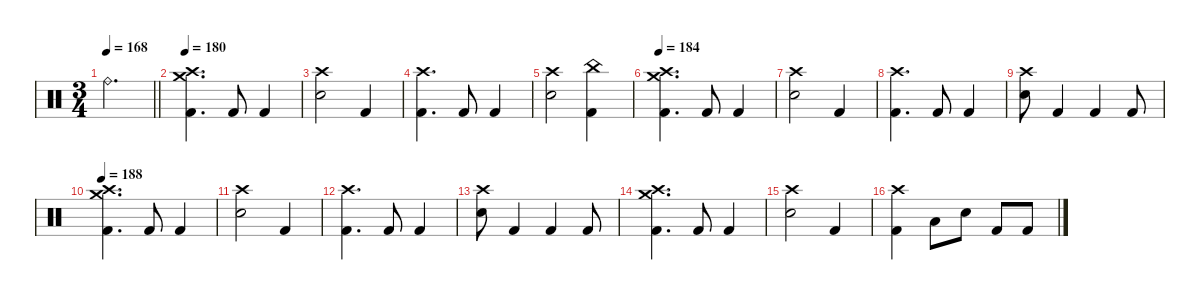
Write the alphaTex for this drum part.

\defaultSystemsLayout 4
\hideDynamics
\bracketExtendMode nobrackets
\singleTrackTrackNamePolicy hidden
\multiTrackTrackNamePolicy hidden
\firstSystemTrackNameMode fullname
\otherSystemsTrackNameOrientation horizontal
\track ("Drums" "drm.") {defaultSystemsLayout 4 instrument percussion}
\staff {score}
\articulation defaults
\ts (3 4)
\tempo 168
\clef neutral
\barLineRight lightlight
\ks c "Ride (bell)".2{d dy f beam Down}
|
\tempo 180
("Crash medium (hit)" "Crash high (hit)" "Kick (hit) 2").4{d beam Down} "Kick (hit) 2".8{beam Up} "Kick (hit) 2".4{beam Up} |
("Crash high (hit)" "Snare (hit) 2").2{beam Down} "Kick (hit) 2".4{beam Up} |
("Crash high (hit)" "Kick (hit) 2").4{d beam Down} "Kick (hit) 2".8{beam Up} "Kick (hit) 2".4{beam Up} |
("Crash high (hit)" "Snare (hit) 2").2{beam Down} ("China (hit)" "Kick (hit) 2").4{beam Down} |
\tempo 184
("Crash medium (hit)" "Crash high (hit)" "Kick (hit) 2").4{d beam Down} "Kick (hit) 2".8{beam Up} "Kick (hit) 2".4{beam Up} |
("Crash high (hit)" "Snare (hit) 2").2{beam Down} "Kick (hit) 2".4{beam Up} |
("Crash high (hit)" "Kick (hit) 2").4{d beam Down} "Kick (hit) 2".8{beam Up} "Kick (hit) 2".4{beam Up} |
("Crash high (hit)" "Snare (hit) 2").8{beam Down} "Kick (hit) 2".4{beam Up} "Kick (hit) 2".4{beam Up} "Kick (hit) 2".8{beam Up} |
\tempo 188
("Crash medium (hit)" "Crash high (hit)" "Kick (hit) 2").4{d beam Down} "Kick (hit) 2".8{beam Up} "Kick (hit) 2".4{beam Up} |
("Crash high (hit)" "Snare (hit) 2").2{beam Down} "Kick (hit) 2".4{beam Up} |
("Crash high (hit)" "Kick (hit) 2").4{d beam Down} "Kick (hit) 2".8{beam Up} "Kick (hit) 2".4{beam Up} |
("Crash high (hit)" "Snare (hit) 2").8{beam Down} "Kick (hit) 2".4{beam Up} "Kick (hit) 2".4{beam Up} "Kick (hit) 2".8{beam Up} |
("Crash medium (hit)" "Crash high (hit)" "Kick (hit) 2").4{d beam Down} "Kick (hit) 2".8{beam Up} "Kick (hit) 2".4{beam Up} |
("Crash high (hit)" "Snare (hit) 2").2{beam Down} "Kick (hit) 2".4{beam Up} |
("Crash high (hit)" "Kick (hit) 2").4{beam Down} "Low Floor Tom (hit)".8{beam Down} "Snare (hit) 2".8{beam Down} "Kick (hit) 2".8{beam Up} "Kick (hit) 2".8{beam Up}
